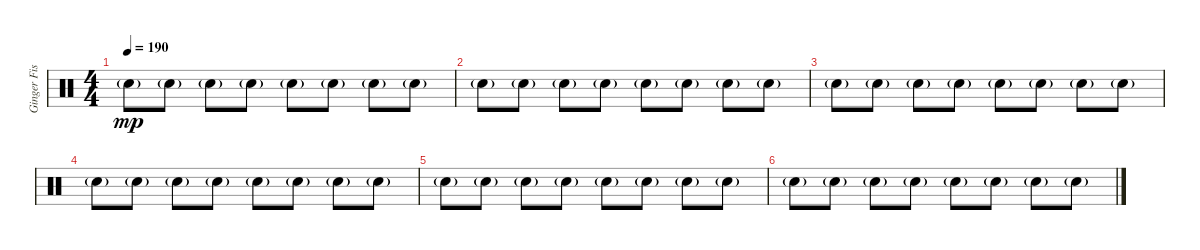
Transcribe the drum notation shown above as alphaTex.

\track ("Ginger Fish " "Ginger Fis") {instrument percussion}
\staff {score}
\articulation defaults
\ts (4 4)
\tempo 190
\clef neutral
\ks c "Electric Snare (hit)"{g}.8{dy mp} "Electric Snare (hit)"{g}.8 "Electric Snare (hit)"{g}.8 "Electric Snare (hit)"{g}.8 "Electric Snare (hit)"{g}.8 "Electric Snare (hit)"{g}.8 "Electric Snare (hit)"{g}.8 "Electric Snare (hit)"{g}.8
|
"Electric Snare (hit)"{g}.8 "Electric Snare (hit)"{g}.8 "Electric Snare (hit)"{g}.8 "Electric Snare (hit)"{g}.8 "Electric Snare (hit)"{g}.8 "Electric Snare (hit)"{g}.8 "Electric Snare (hit)"{g}.8 "Electric Snare (hit)"{g}.8 |
"Electric Snare (hit)"{g}.8 "Electric Snare (hit)"{g}.8 "Electric Snare (hit)"{g}.8 "Electric Snare (hit)"{g}.8 "Electric Snare (hit)"{g}.8 "Electric Snare (hit)"{g}.8 "Electric Snare (hit)"{g}.8 "Electric Snare (hit)"{g}.8 |
"Electric Snare (hit)"{g}.8 "Electric Snare (hit)"{g}.8 "Electric Snare (hit)"{g}.8 "Electric Snare (hit)"{g}.8 "Electric Snare (hit)"{g}.8 "Electric Snare (hit)"{g}.8 "Electric Snare (hit)"{g}.8 "Electric Snare (hit)"{g}.8 |
"Electric Snare (hit)"{g}.8 "Electric Snare (hit)"{g}.8 "Electric Snare (hit)"{g}.8 "Electric Snare (hit)"{g}.8 "Electric Snare (hit)"{g}.8 "Electric Snare (hit)"{g}.8 "Electric Snare (hit)"{g}.8 "Electric Snare (hit)"{g}.8 |
"Electric Snare (hit)"{g}.8 "Electric Snare (hit)"{g}.8 "Electric Snare (hit)"{g}.8 "Electric Snare (hit)"{g}.8 "Electric Snare (hit)"{g}.8 "Electric Snare (hit)"{g}.8 "Electric Snare (hit)"{g}.8 "Electric Snare (hit)"{g}.8
